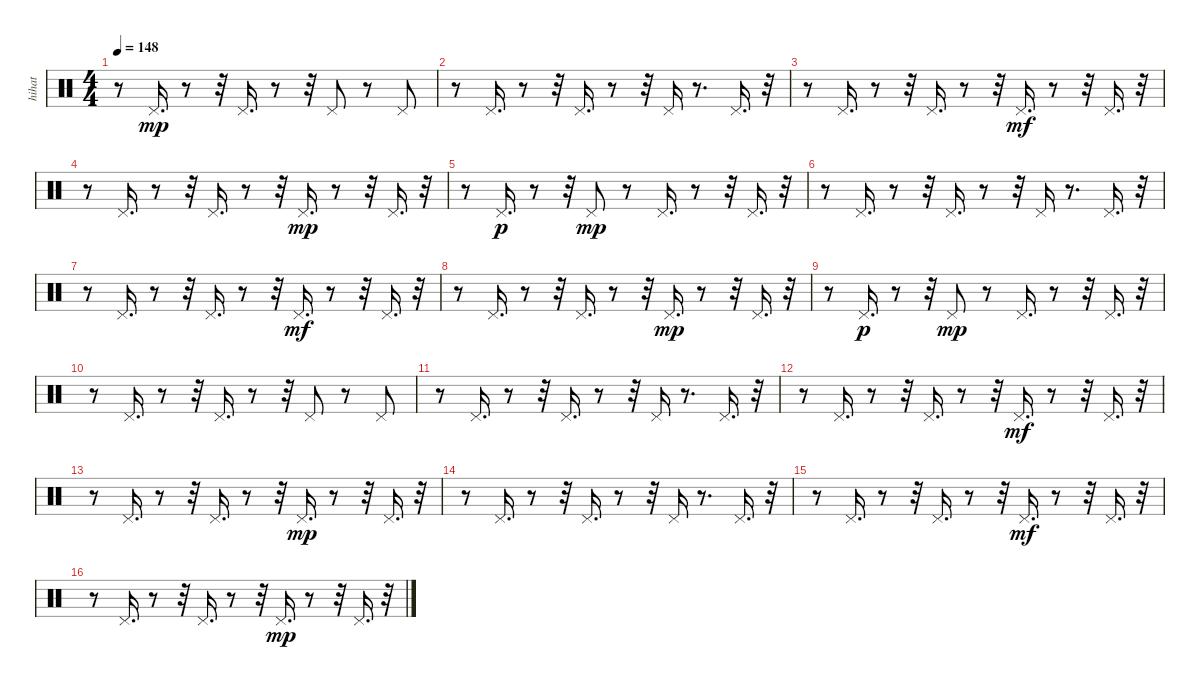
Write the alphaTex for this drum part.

\track ("hihat               " "hihat     ") {instrument percussion}
\staff {score}
\articulation defaults
\ts (4 4)
\tempo 148
\clef neutral
\ks c
r.8{dy mp} "Pedal Hi-Hat (hit)".16{d} r.8 r.32 "Pedal Hi-Hat (hit)".16{d} r.8 r.32 "Pedal Hi-Hat (hit)".8 r.8 "Pedal Hi-Hat (hit)".8 |
r.8 "Pedal Hi-Hat (hit)".16{d} r.8 r.32 "Pedal Hi-Hat (hit)".16{d} r.8 r.32 "Pedal Hi-Hat (hit)".16 r.8{d} "Pedal Hi-Hat (hit)".16{d} r.32 |
r.8 "Pedal Hi-Hat (hit)".16{d} r.8 r.32 "Pedal Hi-Hat (hit)".16{d} r.8 r.32 "Pedal Hi-Hat (hit)".16{d dy mf} r.8 r.32 "Pedal Hi-Hat (hit)".16{d} r.32 |
r.8 "Pedal Hi-Hat (hit)".16{d} r.8 r.32 "Pedal Hi-Hat (hit)".16{d} r.8 r.32 "Pedal Hi-Hat (hit)".16{d dy mp} r.8 r.32 "Pedal Hi-Hat (hit)".16{d} r.32 |
r.8 "Pedal Hi-Hat (hit)".16{d dy p} r.8 r.32 "Pedal Hi-Hat (hit)".8{dy mp} r.8 "Pedal Hi-Hat (hit)".16{d} r.8 r.32 "Pedal Hi-Hat (hit)".16{d} r.32 |
r.8 "Pedal Hi-Hat (hit)".16{d} r.8 r.32 "Pedal Hi-Hat (hit)".16{d} r.8 r.32 "Pedal Hi-Hat (hit)".16 r.8{d} "Pedal Hi-Hat (hit)".16{d} r.32 |
r.8 "Pedal Hi-Hat (hit)".16{d} r.8 r.32 "Pedal Hi-Hat (hit)".16{d} r.8 r.32 "Pedal Hi-Hat (hit)".16{d dy mf} r.8 r.32 "Pedal Hi-Hat (hit)".16{d} r.32 |
r.8 "Pedal Hi-Hat (hit)".16{d} r.8 r.32 "Pedal Hi-Hat (hit)".16{d} r.8 r.32 "Pedal Hi-Hat (hit)".16{d dy mp} r.8 r.32 "Pedal Hi-Hat (hit)".16{d} r.32 |
r.8 "Pedal Hi-Hat (hit)".16{d dy p} r.8 r.32 "Pedal Hi-Hat (hit)".8{dy mp} r.8 "Pedal Hi-Hat (hit)".16{d} r.8 r.32 "Pedal Hi-Hat (hit)".16{d} r.32 |
r.8 "Pedal Hi-Hat (hit)".16{d} r.8 r.32 "Pedal Hi-Hat (hit)".16{d} r.8 r.32 "Pedal Hi-Hat (hit)".8 r.8 "Pedal Hi-Hat (hit)".8 |
r.8 "Pedal Hi-Hat (hit)".16{d} r.8 r.32 "Pedal Hi-Hat (hit)".16{d} r.8 r.32 "Pedal Hi-Hat (hit)".16 r.8{d} "Pedal Hi-Hat (hit)".16{d} r.32 |
r.8 "Pedal Hi-Hat (hit)".16{d} r.8 r.32 "Pedal Hi-Hat (hit)".16{d} r.8 r.32 "Pedal Hi-Hat (hit)".16{d dy mf} r.8 r.32 "Pedal Hi-Hat (hit)".16{d} r.32 |
r.8 "Pedal Hi-Hat (hit)".16{d} r.8 r.32 "Pedal Hi-Hat (hit)".16{d} r.8 r.32 "Pedal Hi-Hat (hit)".16{d dy mp} r.8 r.32 "Pedal Hi-Hat (hit)".16{d} r.32 |
r.8 "Pedal Hi-Hat (hit)".16{d} r.8 r.32 "Pedal Hi-Hat (hit)".16{d} r.8 r.32 "Pedal Hi-Hat (hit)".16 r.8{d} "Pedal Hi-Hat (hit)".16{d} r.32 |
r.8 "Pedal Hi-Hat (hit)".16{d} r.8 r.32 "Pedal Hi-Hat (hit)".16{d} r.8 r.32 "Pedal Hi-Hat (hit)".16{d dy mf} r.8 r.32 "Pedal Hi-Hat (hit)".16{d} r.32 |
r.8 "Pedal Hi-Hat (hit)".16{d} r.8 r.32 "Pedal Hi-Hat (hit)".16{d} r.8 r.32 "Pedal Hi-Hat (hit)".16{d dy mp} r.8 r.32 "Pedal Hi-Hat (hit)".16{d} r.32
